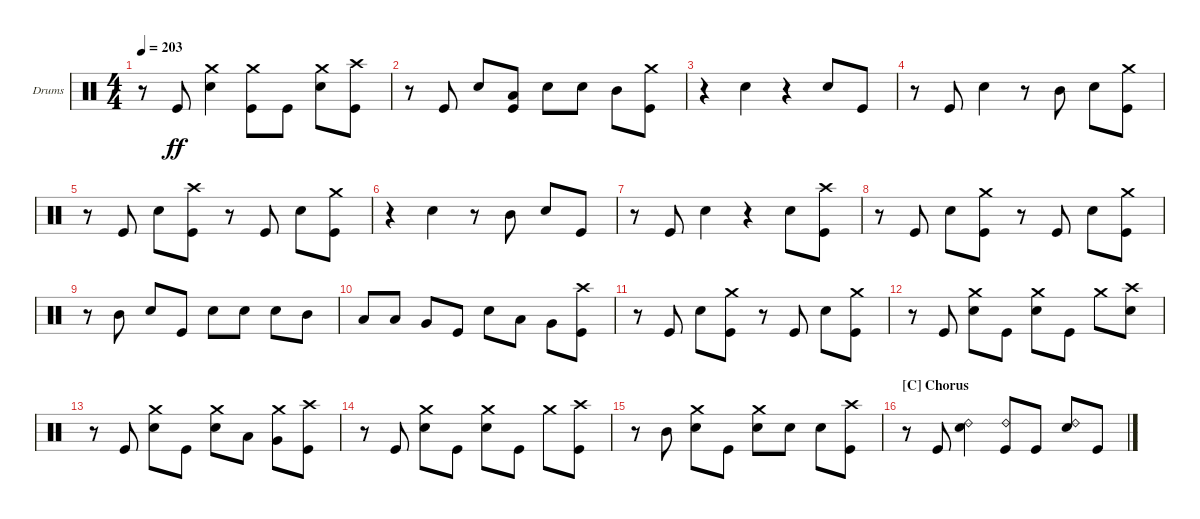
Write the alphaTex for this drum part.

\defaultSystemsLayout 4
\bracketExtendMode groupsimilarinstruments
\firstSystemTrackNameOrientation horizontal
\otherSystemsTrackNameOrientation horizontal
\track ("Brandon Barnes - Drums" "Drums") {instrument percussion}
\staff {score}
\articulation defaults
\ts (4 4)
\tempo 203
\clef neutral
\ks c
r.8{dy ff} "Kick (hit)".8 ("Snare (hit) 2" "Crash medium (hit)").4 ("Kick (hit)" "Crash medium (hit)").8 "Kick (hit)".8 ("Snare (hit) 2" "Crash medium (hit)").8 ("Kick (hit)" "Crash high (hit)").8 |
r.8 "Kick (hit)".8 "Snare (hit) 2".8 ("Kick (hit)" "Low Tom (hit)").8 "Snare (hit) 2".8 "Snare (hit) 2".8 "Mid Tom (hit)".8 ("Kick (hit)" "Crash medium (hit)").8 |
r.4 "Snare (hit) 2".4 r.4 "Snare (hit) 2".8 "Kick (hit)".8 |
r.8 "Kick (hit)".8 "Snare (hit) 2".4 r.8 "Mid Tom (hit)".8 "Snare (hit) 2".8 ("Kick (hit)" "Crash medium (hit)").8 |
r.8 "Kick (hit)".8 "Snare (hit) 2".8 ("Kick (hit)" "Crash high (hit)").8 r.8 "Kick (hit)".8 "Snare (hit) 2".8 ("Kick (hit)" "Crash medium (hit)").8 |
r.4 "Snare (hit) 2".4 r.8 "Mid Tom (hit)".8 "Snare (hit) 2".8 "Kick (hit)".8 |
r.8 "Kick (hit)".8 "Snare (hit) 2".4 r.4 "Snare (hit) 2".8 ("Kick (hit)" "Crash high (hit)").8 |
r.8 "Kick (hit)".8 "Snare (hit) 2".8 ("Kick (hit)" "Crash medium (hit)").8 r.8 "Kick (hit)".8 "Snare (hit) 2".8 ("Kick (hit)" "Crash medium (hit)").8 |
r.8 "Mid Tom (hit)".8 "Snare (hit) 2".8 "Kick (hit)".8 "Snare (hit) 2".8 "Snare (hit) 2".8 "Snare (hit) 2".8 "Mid Tom (hit)".8 |
"Low Tom (hit)".8 "Low Tom (hit)".8 "Very Low Tom (hit)".8 "Kick (hit)".8 "Snare (hit) 2".8 "Low Tom (hit)".8 "Very Low Tom (hit)".8 ("Kick (hit)" "Crash high (hit)").8 |
r.8 "Kick (hit)".8 "Snare (hit) 2".8 ("Kick (hit)" "Crash medium (hit)").8 r.8 "Kick (hit)".8 "Snare (hit) 2".8 ("Kick (hit)" "Crash medium (hit)").8 |
r.8 "Kick (hit)".8 ("Snare (hit) 2" "Crash medium (hit)").8 "Kick (hit)".8 ("Snare (hit) 2" "Crash medium (hit)").8 "Kick (hit)".8 "Crash medium (hit)".8 ("Snare (hit) 2" "Crash high (hit)").8 |
r.8 "Kick (hit)".8 ("Snare (hit) 2" "Crash medium (hit)").8 "Kick (hit)".8 ("Snare (hit) 2" "Crash medium (hit)").8 "Low Tom (hit)".8 ("Crash medium (hit)" "Very Low Tom (hit)").8 ("Kick (hit)" "Crash high (hit)").8 |
r.8 "Kick (hit)".8 ("Snare (hit) 2" "Crash medium (hit)").8 "Kick (hit)".8 ("Snare (hit) 2" "Crash medium (hit)").8 "Kick (hit)".8 "Crash medium (hit)".8 ("Crash high (hit)" "Kick (hit)").8 |
r.8 "Mid Tom (hit)".8 ("Snare (hit) 2" "Crash medium (hit)").8 "Kick (hit)".8 ("Snare (hit) 2" "Crash medium (hit)").8 "Snare (hit) 2".8 "Snare (hit) 2".8 ("Kick (hit)" "Crash high (hit)").8 |
\section ("C" "Chorus")
r.8 "Kick (hit)".8 ("Snare (hit) 2" "Ride (bell) 2").4 ("Ride (bell) 2" "Kick (hit)").8 "Kick (hit)".8 ("Snare (hit) 2" "Ride (bell) 2").8 "Kick (hit)".8
